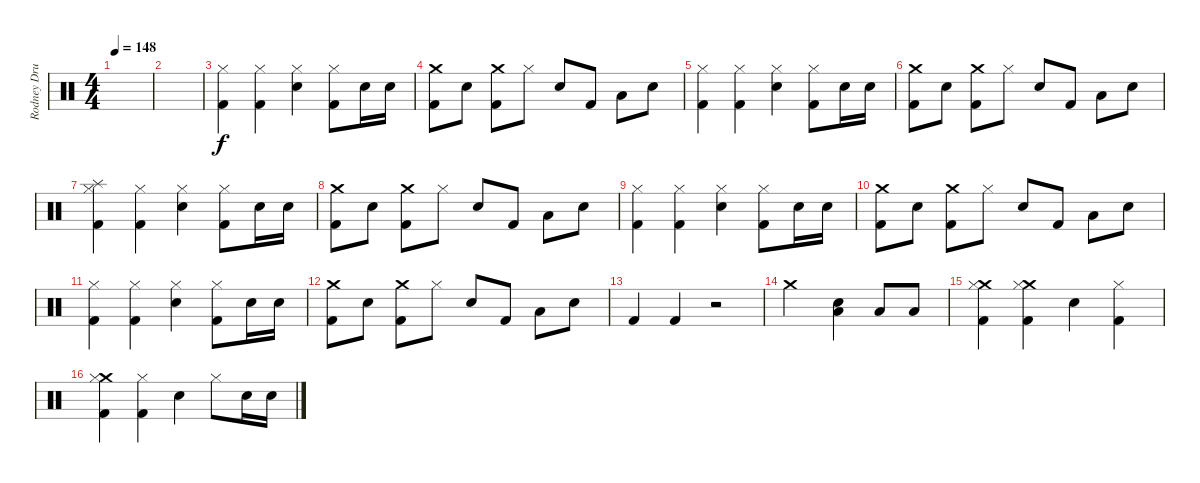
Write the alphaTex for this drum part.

\track ("Rodney Drums" "Rodney Dru") {instrument percussion}
\staff {score}
\articulation defaults
\ts (4 4)
\tempo 148
\clef neutral
\ks c
|
|
("Hi-Hat (closed)" "Kick (hit) 2").4 ("Hi-Hat (closed)" "Kick (hit) 2").4 ("Hi-Hat (closed)" "Electric Snare (hit)").4 ("Hi-Hat (closed)" "Kick (hit) 2").8 "Electric Snare (hit)".16 "Electric Snare (hit)".16 |
("Crash medium (hit)" "Kick (hit) 2").8 "Electric Snare (hit)".8 ("Crash medium (hit)" "Kick (hit) 2").8 "Hi-Hat (closed)".8 "Electric Snare (hit)".8 "Kick (hit) 2".8 "Low Tom (hit)".8 "Electric Snare (hit)".8 |
("Hi-Hat (closed)" "Kick (hit) 2").4 ("Hi-Hat (closed)" "Kick (hit) 2").4 ("Hi-Hat (closed)" "Electric Snare (hit)").4 ("Hi-Hat (closed)" "Kick (hit) 2").8 "Electric Snare (hit)".16 "Electric Snare (hit)".16 |
("Crash medium (hit)" "Kick (hit) 2").8 "Electric Snare (hit)".8 ("Crash medium (hit)" "Kick (hit) 2").8 "Hi-Hat (closed)".8 "Electric Snare (hit)".8 "Kick (hit) 2".8 "Low Tom (hit)".8 "Electric Snare (hit)".8 |
("Splash (hit)" "Hi-Hat (closed)" "Kick (hit) 2").4 ("Hi-Hat (closed)" "Kick (hit) 2").4 ("Hi-Hat (closed)" "Electric Snare (hit)").4 ("Hi-Hat (closed)" "Kick (hit) 2").8 "Electric Snare (hit)".16 "Electric Snare (hit)".16 |
("Crash medium (hit)" "Kick (hit) 2").8 "Electric Snare (hit)".8 ("Crash medium (hit)" "Kick (hit) 2").8 "Hi-Hat (closed)".8 "Electric Snare (hit)".8 "Kick (hit) 2".8 "Low Tom (hit)".8 "Electric Snare (hit)".8 |
("Hi-Hat (closed)" "Kick (hit) 2").4 ("Hi-Hat (closed)" "Kick (hit) 2").4 ("Hi-Hat (closed)" "Electric Snare (hit)").4 ("Hi-Hat (closed)" "Kick (hit) 2").8 "Electric Snare (hit)".16 "Electric Snare (hit)".16 |
("Crash medium (hit)" "Kick (hit) 2").8 "Electric Snare (hit)".8 ("Crash medium (hit)" "Kick (hit) 2").8 "Hi-Hat (closed)".8 "Electric Snare (hit)".8 "Kick (hit) 2".8 "Low Tom (hit)".8 "Electric Snare (hit)".8 |
("Hi-Hat (closed)" "Kick (hit) 2").4 ("Hi-Hat (closed)" "Kick (hit) 2").4 ("Hi-Hat (closed)" "Electric Snare (hit)").4 ("Hi-Hat (closed)" "Kick (hit) 2").8 "Electric Snare (hit)".16 "Electric Snare (hit)".16 |
("Crash medium (hit)" "Kick (hit) 2").8 "Electric Snare (hit)".8 ("Crash medium (hit)" "Kick (hit) 2").8 "Hi-Hat (closed)".8 "Electric Snare (hit)".8 "Kick (hit) 2".8 "Low Tom (hit)".8 "Electric Snare (hit)".8 |
"Kick (hit) 2".4 "Kick (hit) 2".4 r.2 |
"Crash medium (hit)".2{volume 16} ("Low Floor Tom (hit)" "Electric Snare (hit)").4 "Low Floor Tom (hit)".8 "Low Floor Tom (hit)".8 |
("Crash medium (hit)" "Hi-Hat (closed)" "Kick (hit) 2").4 ("Crash medium (hit)" "Hi-Hat (closed)" "Kick (hit) 2").4 "Electric Snare (hit)".4 ("Hi-Hat (closed)" "Kick (hit) 2").4 |
("Crash medium (hit)" "Hi-Hat (closed)" "Kick (hit) 2").4 ("Hi-Hat (closed)" "Kick (hit) 2").4 "Electric Snare (hit)".4 "Hi-Hat (closed)".8 "Electric Snare (hit)".16 "Electric Snare (hit)".16
